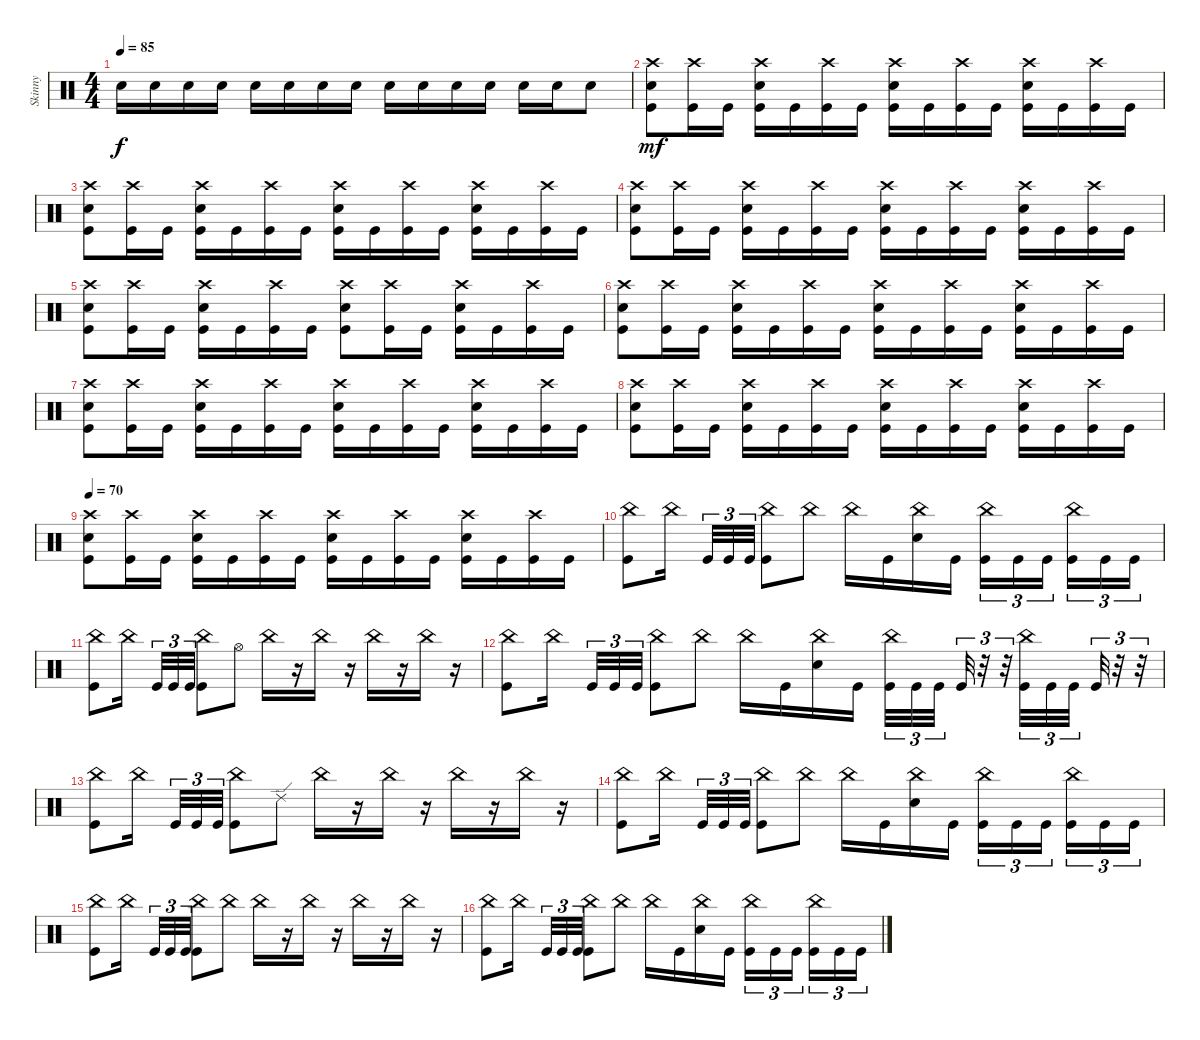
\track ("Skinny" "Skinny") {instrument percussion}
\staff {score}
\articulation defaults
\ts (4 4)
\tempo 85
\clef neutral
\ks c "Snare (hit) 2".16{dy f} "Snare (hit) 2".16 "Snare (hit) 2".16 "Snare (hit) 2".16 "Snare (hit) 2".16 "Snare (hit) 2".16 "Snare (hit) 2".16 "Snare (hit) 2".16 "Snare (hit) 2".16 "Snare (hit) 2".16 "Snare (hit) 2".16 "Snare (hit) 2".16 "Snare (hit) 2".16 "Snare (hit) 2".16 "Snare (hit) 2".8
|
("Crash high (hit)" "Kick (hit)" "Snare (hit) 2").8{dy mf} ("Crash high (hit)" "Kick (hit)").16 "Kick (hit)".16 ("Crash high (hit)" "Kick (hit)" "Snare (hit) 2").16 "Kick (hit)".16 ("Crash high (hit)" "Kick (hit)").16 "Kick (hit)".16 ("Crash high (hit)" "Kick (hit)" "Snare (hit) 2").16 "Kick (hit)".16 ("Crash high (hit)" "Kick (hit)").16 "Kick (hit)".16 ("Crash high (hit)" "Kick (hit)" "Snare (hit) 2").16 "Kick (hit)".16 ("Crash high (hit)" "Kick (hit)").16 "Kick (hit)".16 |
("Crash high (hit)" "Kick (hit)" "Snare (hit) 2").8 ("Crash high (hit)" "Kick (hit)").16 "Kick (hit)".16 ("Crash high (hit)" "Kick (hit)" "Snare (hit) 2").16 "Kick (hit)".16 ("Crash high (hit)" "Kick (hit)").16 "Kick (hit)".16 ("Crash high (hit)" "Kick (hit)" "Snare (hit) 2").16 "Kick (hit)".16 ("Crash high (hit)" "Kick (hit)").16 "Kick (hit)".16 ("Crash high (hit)" "Kick (hit)" "Snare (hit) 2").16 "Kick (hit)".16 ("Crash high (hit)" "Kick (hit)").16 "Kick (hit)".16 |
("Crash high (hit)" "Kick (hit)" "Snare (hit) 2").8 ("Crash high (hit)" "Kick (hit)").16 "Kick (hit)".16 ("Crash high (hit)" "Kick (hit)" "Snare (hit) 2").16 "Kick (hit)".16 ("Crash high (hit)" "Kick (hit)").16 "Kick (hit)".16 ("Crash high (hit)" "Kick (hit)" "Snare (hit) 2").16 "Kick (hit)".16 ("Crash high (hit)" "Kick (hit)").16 "Kick (hit)".16 ("Crash high (hit)" "Kick (hit)" "Snare (hit) 2").16 "Kick (hit)".16 ("Crash high (hit)" "Kick (hit)").16 "Kick (hit)".16 |
("Crash high (hit)" "Kick (hit)" "Snare (hit) 2").8 ("Crash high (hit)" "Kick (hit)").16 "Kick (hit)".16 ("Crash high (hit)" "Kick (hit)" "Snare (hit) 2").16 "Kick (hit)".16 ("Crash high (hit)" "Kick (hit)").16 "Kick (hit)".16 ("Crash high (hit)" "Kick (hit)" "Snare (hit) 2").8 ("Crash high (hit)" "Kick (hit)").16 "Kick (hit)".16 ("Crash high (hit)" "Kick (hit)" "Snare (hit) 2").16 "Kick (hit)".16 ("Crash high (hit)" "Kick (hit)").16 "Kick (hit)".16 |
("Crash high (hit)" "Kick (hit)" "Snare (hit) 2").8 ("Crash high (hit)" "Kick (hit)").16 "Kick (hit)".16 ("Crash high (hit)" "Kick (hit)" "Snare (hit) 2").16 "Kick (hit)".16 ("Crash high (hit)" "Kick (hit)").16 "Kick (hit)".16 ("Crash high (hit)" "Kick (hit)" "Snare (hit) 2").16 "Kick (hit)".16 ("Crash high (hit)" "Kick (hit)").16 "Kick (hit)".16 ("Crash high (hit)" "Kick (hit)" "Snare (hit) 2").16 "Kick (hit)".16 ("Crash high (hit)" "Kick (hit)").16 "Kick (hit)".16 |
("Crash high (hit)" "Kick (hit)" "Snare (hit) 2").8 ("Crash high (hit)" "Kick (hit)").16 "Kick (hit)".16 ("Crash high (hit)" "Kick (hit)" "Snare (hit) 2").16 "Kick (hit)".16 ("Crash high (hit)" "Kick (hit)").16 "Kick (hit)".16 ("Crash high (hit)" "Kick (hit)" "Snare (hit) 2").16 "Kick (hit)".16 ("Crash high (hit)" "Kick (hit)").16 "Kick (hit)".16 ("Crash high (hit)" "Kick (hit)" "Snare (hit) 2").16 "Kick (hit)".16 ("Crash high (hit)" "Kick (hit)").16 "Kick (hit)".16 |
("Crash high (hit)" "Kick (hit)" "Snare (hit) 2").8 ("Crash high (hit)" "Kick (hit)").16 "Kick (hit)".16 ("Crash high (hit)" "Kick (hit)" "Snare (hit) 2").16 "Kick (hit)".16 ("Crash high (hit)" "Kick (hit)").16 "Kick (hit)".16 ("Crash high (hit)" "Kick (hit)" "Snare (hit) 2").16 "Kick (hit)".16 ("Crash high (hit)" "Kick (hit)").16 "Kick (hit)".16 ("Crash high (hit)" "Kick (hit)" "Snare (hit) 2").16 "Kick (hit)".16 ("Crash high (hit)" "Kick (hit)").16 "Kick (hit)".16 |
\tempo 70
("Crash high (hit)" "Kick (hit)" "Snare (hit) 2").8 ("Crash high (hit)" "Kick (hit)").16 "Kick (hit)".16 ("Crash high (hit)" "Kick (hit)" "Snare (hit) 2").16 "Kick (hit)".16 ("Crash high (hit)" "Kick (hit)").16 "Kick (hit)".16 ("Crash high (hit)" "Kick (hit)" "Snare (hit) 2").16 "Kick (hit)".16 ("Crash high (hit)" "Kick (hit)").16 "Kick (hit)".16 ("Crash high (hit)" "Kick (hit)" "Snare (hit) 2").16 "Kick (hit)".16 ("Crash high (hit)" "Kick (hit)").16 "Kick (hit)".16 |
("Kick (hit)" "China (hit)").8 "China (hit)".16 "Kick (hit)".32{tu (3 2)} "Kick (hit)".32{tu (3 2)} "Kick (hit)".32{tu (3 2)} ("Kick (hit)" "China (hit)").8 "China (hit)".8 "China (hit)".16 "Kick (hit)".16 ("China (hit)" "Snare (hit) 2").16 "Kick (hit)".16 ("China (hit)" "Kick (hit)").16{tu (3 2)} "Kick (hit)".16{tu (3 2)} "Kick (hit)".16{tu (3 2)} ("China (hit)" "Kick (hit)").16{tu (3 2)} "Kick (hit)".16{tu (3 2)} "Kick (hit)".16{tu (3 2)} |
("Kick (hit)" "China (hit)").8 "China (hit)".16 "Kick (hit)".32{tu (3 2)} "Kick (hit)".32{tu (3 2)} "Kick (hit)".32{tu (3 2)} ("Kick (hit)" "China (hit)").8 "Hi-Hat (open)".8 "China (hit)".16 r.16 "China (hit)".16 r.16 "China (hit)".16 r.16 "China (hit)".16 r.16 |
("Kick (hit)" "China (hit)").8 "China (hit)".16 "Kick (hit)".32{tu (3 2)} "Kick (hit)".32{tu (3 2)} "Kick (hit)".32{tu (3 2)} ("Kick (hit)" "China (hit)").8 "China (hit)".8 "China (hit)".16 "Kick (hit)".16 ("China (hit)" "Snare (hit) 2").16 "Kick (hit)".16 ("China (hit)" "Kick (hit)").32{tu (3 2)} "Kick (hit)".32{tu (3 2)} "Kick (hit)".32{tu (3 2)} "Kick (hit)".32{tu (3 2)} r.32{tu (3 2)} r.32{tu (3 2)} ("China (hit)" "Kick (hit)").32{tu (3 2)} "Kick (hit)".32{tu (3 2)} "Kick (hit)".32{tu (3 2)} "Kick (hit)".32{tu (3 2)} r.32{tu (3 2)} r.32{tu (3 2)} |
("Kick (hit)" "China (hit)").8 "China (hit)".16 "Kick (hit)".32{tu (3 2)} "Kick (hit)".32{tu (3 2)} "Kick (hit)".32{tu (3 2)} ("Kick (hit)" "China (hit)").8 "Ride (edge) 2".8 "China (hit)".16 r.16 "China (hit)".16 r.16 "China (hit)".16 r.16 "China (hit)".16 r.16 |
("Kick (hit)" "China (hit)").8 "China (hit)".16 "Kick (hit)".32{tu (3 2)} "Kick (hit)".32{tu (3 2)} "Kick (hit)".32{tu (3 2)} ("Kick (hit)" "China (hit)").8 "China (hit)".8 "China (hit)".16 "Kick (hit)".16 ("China (hit)" "Snare (hit) 2").16 "Kick (hit)".16 ("China (hit)" "Kick (hit)").16{tu (3 2)} "Kick (hit)".16{tu (3 2)} "Kick (hit)".16{tu (3 2)} ("China (hit)" "Kick (hit)").16{tu (3 2)} "Kick (hit)".16{tu (3 2)} "Kick (hit)".16{tu (3 2)} |
("Kick (hit)" "China (hit)").8 "China (hit)".16 "Kick (hit)".32{tu (3 2)} "Kick (hit)".32{tu (3 2)} "Kick (hit)".32{tu (3 2)} ("Kick (hit)" "China (hit)").8 "China (hit)".8 "China (hit)".16 r.16 "China (hit)".16 r.16 "China (hit)".16 r.16 "China (hit)".16 r.16 |
("Kick (hit)" "China (hit)").8 "China (hit)".16 "Kick (hit)".32{tu (3 2)} "Kick (hit)".32{tu (3 2)} "Kick (hit)".32{tu (3 2)} ("Kick (hit)" "China (hit)").8 "China (hit)".8 "China (hit)".16 "Kick (hit)".16 ("China (hit)" "Snare (hit) 2").16 "Kick (hit)".16 ("China (hit)" "Kick (hit)").16{tu (3 2)} "Kick (hit)".16{tu (3 2)} "Kick (hit)".16{tu (3 2)} ("China (hit)" "Kick (hit)").16{tu (3 2)} "Kick (hit)".16{tu (3 2)} "Kick (hit)".16{tu (3 2)}
